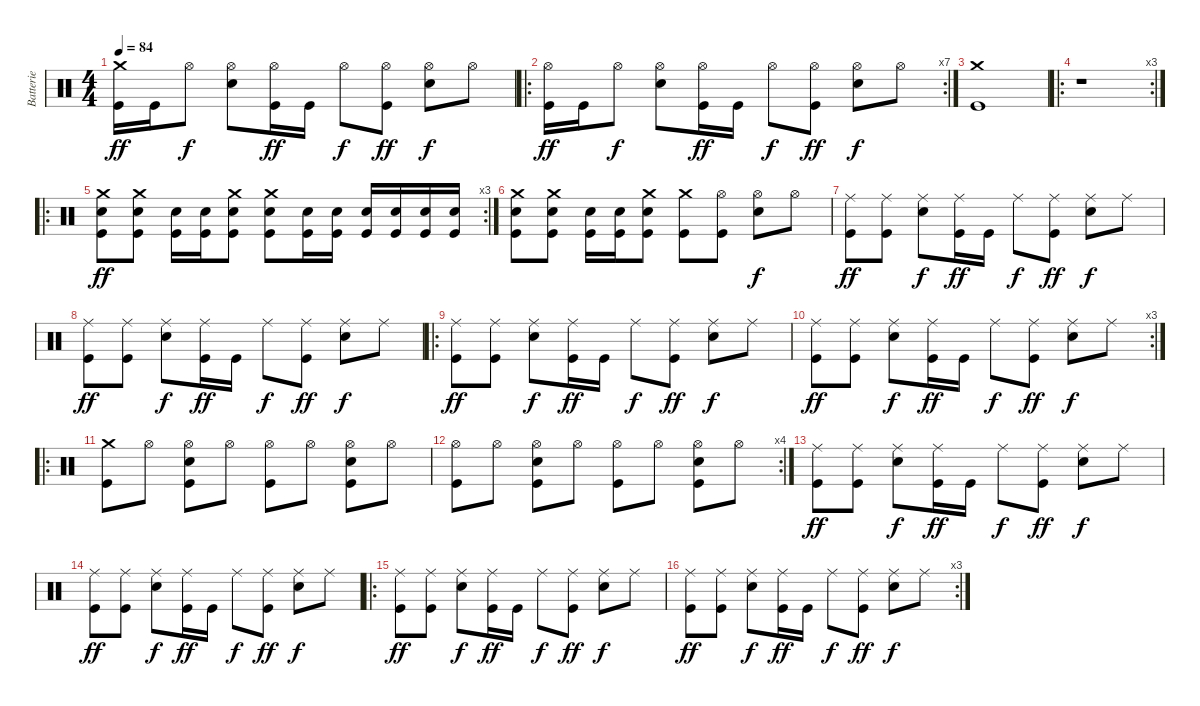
\track ("Batterie" "Batterie") {instrument percussion}
\staff {score}
\articulation defaults
\ts (4 4)
\tempo 84
\clef neutral
\ks c
("Crash medium (hit)" "Kick (hit)").16{dy ff} "Kick (hit)".16 "Hi-Hat (open)".8{dy f} ("Hi-Hat (open)" "Electric Snare (hit)").8 ("Hi-Hat (open)" "Kick (hit)").16{dy ff} "Kick (hit)".16 "Hi-Hat (open)".8{dy f} ("Hi-Hat (open)" "Kick (hit)").8{dy ff} ("Hi-Hat (open)" "Electric Snare (hit)").8{dy f} "Hi-Hat (open)".8 |
\ro
\rc 7
("Hi-Hat (open)" "Kick (hit)").16{dy ff} "Kick (hit)".16 "Hi-Hat (open)".8{dy f} ("Hi-Hat (open)" "Electric Snare (hit)").8 ("Hi-Hat (open)" "Kick (hit)").16{dy ff} "Kick (hit)".16 "Hi-Hat (open)".8{dy f} ("Hi-Hat (open)" "Kick (hit)").8{dy ff} ("Hi-Hat (open)" "Electric Snare (hit)").8{dy f} "Hi-Hat (open)".8 |
("Crash medium (hit)" "Kick (hit)").1 |
\ro
\rc 3
r.1 |
\ro
\rc 3
("Crash medium (hit)" "Electric Snare (hit)" "Kick (hit)").8{dy ff} ("Crash medium (hit)" "Electric Snare (hit)" "Kick (hit)").8 ("Electric Snare (hit)" "Kick (hit)").16 ("Electric Snare (hit)" "Kick (hit)").16 ("Crash medium (hit)" "Electric Snare (hit)" "Kick (hit)").8 ("Crash medium (hit)" "Electric Snare (hit)" "Kick (hit)").8 ("Electric Snare (hit)" "Kick (hit)").16 ("Electric Snare (hit)" "Kick (hit)").16 ("Electric Snare (hit)" "Kick (hit)").16 ("Electric Snare (hit)" "Kick (hit)").16 ("Electric Snare (hit)" "Kick (hit)").16 ("Electric Snare (hit)" "Kick (hit)").16 |
("Crash medium (hit)" "Electric Snare (hit)" "Kick (hit)").8 ("Crash medium (hit)" "Electric Snare (hit)" "Kick (hit)").8 ("Electric Snare (hit)" "Kick (hit)").16 ("Electric Snare (hit)" "Kick (hit)").16 ("Crash medium (hit)" "Electric Snare (hit)" "Kick (hit)").8 ("Crash medium (hit)" "Kick (hit)").8 ("Hi-Hat (open)" "Kick (hit)").8 ("Hi-Hat (open)" "Electric Snare (hit)").8{dy f} "Hi-Hat (open)".8 |
("Ride (middle)" "Kick (hit)").8{dy ff} ("Ride (middle)" "Kick (hit)").8 ("Ride (middle)" "Electric Snare (hit)").8{dy f} ("Ride (middle)" "Kick (hit)").16{dy ff} "Kick (hit)".16 "Ride (middle)".8{dy f} ("Ride (middle)" "Kick (hit)").8{dy ff} ("Ride (middle)" "Electric Snare (hit)").8{dy f} "Ride (middle)".8 |
("Ride (middle)" "Kick (hit)").8{dy ff} ("Ride (middle)" "Kick (hit)").8 ("Ride (middle)" "Electric Snare (hit)").8{dy f} ("Ride (middle)" "Kick (hit)").16{dy ff} "Kick (hit)".16 "Ride (middle)".8{dy f} ("Ride (middle)" "Kick (hit)").8{dy ff} ("Ride (middle)" "Electric Snare (hit)").8{dy f} "Ride (middle)".8 |
\ro
("Ride (middle)" "Kick (hit)").8{dy ff} ("Ride (middle)" "Kick (hit)").8 ("Ride (middle)" "Electric Snare (hit)").8{dy f} ("Ride (middle)" "Kick (hit)").16{dy ff} "Kick (hit)".16 "Ride (middle)".8{dy f} ("Ride (middle)" "Kick (hit)").8{dy ff} ("Ride (middle)" "Electric Snare (hit)").8{dy f} "Ride (middle)".8 |
\rc 3
("Ride (middle)" "Kick (hit)").8{dy ff} ("Ride (middle)" "Kick (hit)").8 ("Ride (middle)" "Electric Snare (hit)").8{dy f} ("Ride (middle)" "Kick (hit)").16{dy ff} "Kick (hit)".16 "Ride (middle)".8{dy f} ("Ride (middle)" "Kick (hit)").8{dy ff} ("Ride (middle)" "Electric Snare (hit)").8{dy f} "Ride (middle)".8 |
\ro
("Crash medium (hit)" "Kick (hit)").8 "Hi-Hat (open)".8 ("Hi-Hat (open)" "Electric Snare (hit)" "Kick (hit)").8 "Hi-Hat (open)".8 ("Hi-Hat (open)" "Kick (hit)").8 "Hi-Hat (open)".8 ("Hi-Hat (open)" "Electric Snare (hit)" "Kick (hit)").8 "Hi-Hat (open)".8 |
\rc 4
("Hi-Hat (open)" "Kick (hit)").8 "Hi-Hat (open)".8 ("Hi-Hat (open)" "Electric Snare (hit)" "Kick (hit)").8 "Hi-Hat (open)".8 ("Hi-Hat (open)" "Kick (hit)").8 "Hi-Hat (open)".8 ("Hi-Hat (open)" "Electric Snare (hit)" "Kick (hit)").8 "Hi-Hat (open)".8 |
("Ride (middle)" "Kick (hit)").8{dy ff} ("Ride (middle)" "Kick (hit)").8 ("Ride (middle)" "Electric Snare (hit)").8{dy f} ("Ride (middle)" "Kick (hit)").16{dy ff} "Kick (hit)".16 "Ride (middle)".8{dy f} ("Ride (middle)" "Kick (hit)").8{dy ff} ("Ride (middle)" "Electric Snare (hit)").8{dy f} "Ride (middle)".8 |
("Ride (middle)" "Kick (hit)").8{dy ff} ("Ride (middle)" "Kick (hit)").8 ("Ride (middle)" "Electric Snare (hit)").8{dy f} ("Ride (middle)" "Kick (hit)").16{dy ff} "Kick (hit)".16 "Ride (middle)".8{dy f} ("Ride (middle)" "Kick (hit)").8{dy ff} ("Ride (middle)" "Electric Snare (hit)").8{dy f} "Ride (middle)".8 |
\ro
("Ride (middle)" "Kick (hit)").8{dy ff} ("Ride (middle)" "Kick (hit)").8 ("Ride (middle)" "Electric Snare (hit)").8{dy f} ("Ride (middle)" "Kick (hit)").16{dy ff} "Kick (hit)".16 "Ride (middle)".8{dy f} ("Ride (middle)" "Kick (hit)").8{dy ff} ("Ride (middle)" "Electric Snare (hit)").8{dy f} "Ride (middle)".8 |
\rc 3
("Ride (middle)" "Kick (hit)").8{dy ff} ("Ride (middle)" "Kick (hit)").8 ("Ride (middle)" "Electric Snare (hit)").8{dy f} ("Ride (middle)" "Kick (hit)").16{dy ff} "Kick (hit)".16 "Ride (middle)".8{dy f} ("Ride (middle)" "Kick (hit)").8{dy ff} ("Ride (middle)" "Electric Snare (hit)").8{dy f} "Ride (middle)".8
